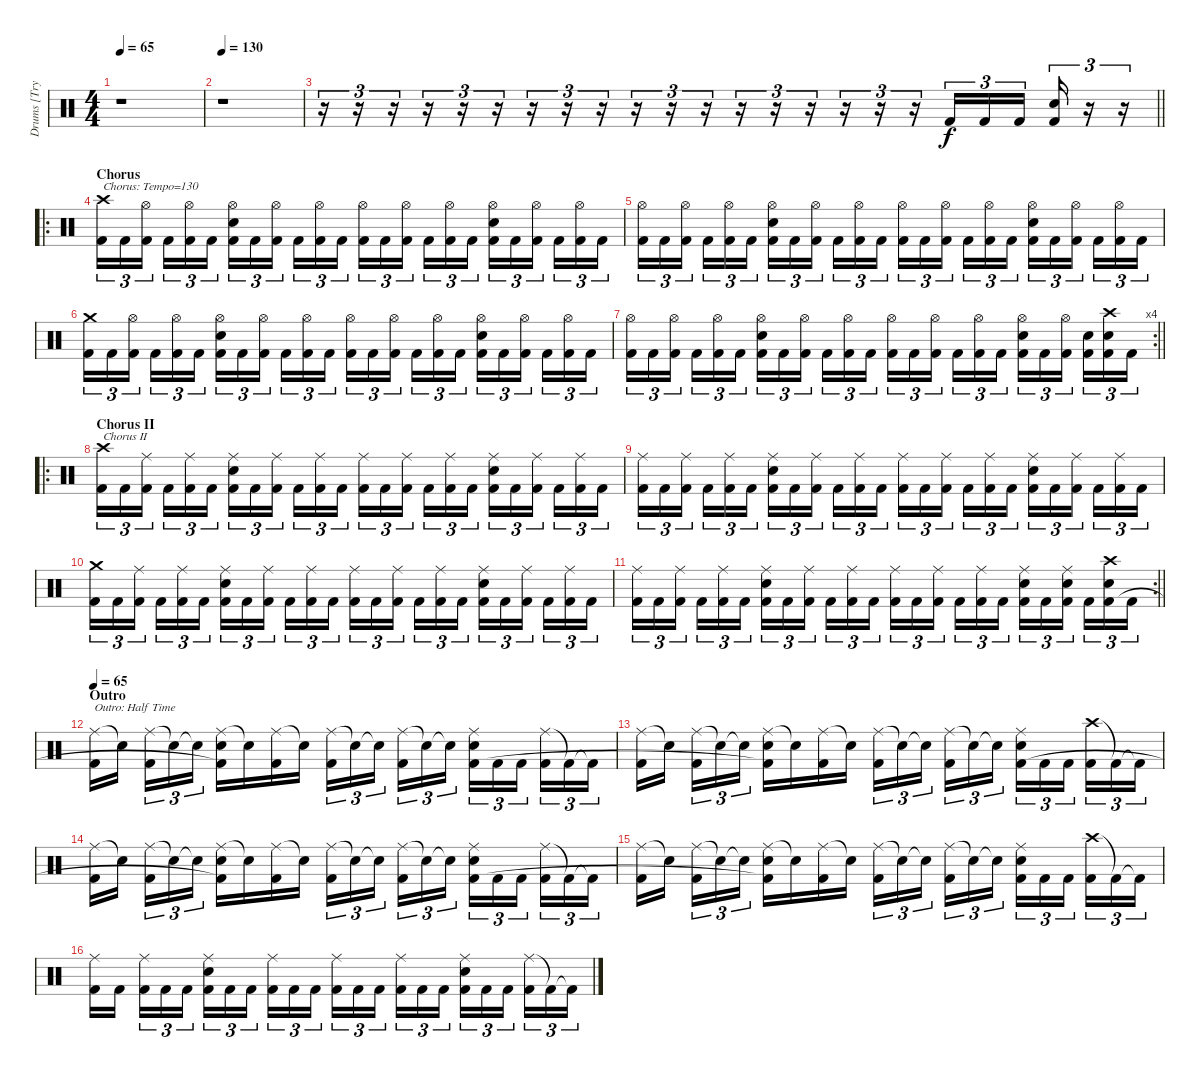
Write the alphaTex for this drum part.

\track ("Drums [Trym]" "Drums [Try") {instrument percussion}
\staff {score}
\articulation defaults
\ts (4 4)
\tempo 65
\clef neutral
\ks c
r.1{dy f} |
\tempo 130
r.1 |
\barLineRight lightlight
r.16{tu (3 2)} r.16{tu (3 2)} r.16{tu (3 2)} r.16{tu (3 2)} r.16{tu (3 2)} r.16{tu (3 2)} r.16{tu (3 2)} r.16{tu (3 2)} r.16{tu (3 2)} r.16{tu (3 2)} r.16{tu (3 2)} r.16{tu (3 2)} r.16{tu (3 2)} r.16{tu (3 2)} r.16{tu (3 2)} r.16{tu (3 2)} r.16{tu (3 2)} r.16{tu (3 2)} "Kick (hit) 2".16{tu (3 2)} "Kick (hit) 2".16{tu (3 2)} "Kick (hit) 2".16{tu (3 2) beam splitsecondary} ("Electric Snare (hit)" "Kick (hit) 2").16{tu (3 2)} r.16{tu (3 2)} r.16{tu (3 2)} |
\ro
\section ("" "Chorus")
("Crash high (hit)" "Kick (hit) 2").16{tu (3 2) txt "Chorus: Tempo=130"} "Kick (hit) 2".16{tu (3 2)} ("Hi-Hat (open)" "Kick (hit) 2").16{tu (3 2) beam splitsecondary} "Kick (hit) 2".16{tu (3 2)} ("Hi-Hat (open)" "Kick (hit) 2").16{tu (3 2)} "Kick (hit) 2".16{tu (3 2)} ("Hi-Hat (open)" "Electric Snare (hit)" "Kick (hit) 2").16{tu (3 2)} "Kick (hit) 2".16{tu (3 2)} ("Hi-Hat (open)" "Kick (hit) 2").16{tu (3 2) beam splitsecondary} "Kick (hit) 2".16{tu (3 2)} ("Hi-Hat (open)" "Kick (hit) 2").16{tu (3 2)} "Kick (hit) 2".16{tu (3 2)} ("Hi-Hat (open)" "Kick (hit) 2").16{tu (3 2)} "Kick (hit) 2".16{tu (3 2)} ("Hi-Hat (open)" "Kick (hit) 2").16{tu (3 2) beam splitsecondary} "Kick (hit) 2".16{tu (3 2)} ("Hi-Hat (open)" "Kick (hit) 2").16{tu (3 2)} "Kick (hit) 2".16{tu (3 2)} ("Hi-Hat (open)" "Electric Snare (hit)" "Kick (hit) 2").16{tu (3 2)} "Kick (hit) 2".16{tu (3 2)} ("Hi-Hat (open)" "Kick (hit) 2").16{tu (3 2) beam splitsecondary} "Kick (hit) 2".16{tu (3 2)} ("Hi-Hat (open)" "Kick (hit) 2").16{tu (3 2)} "Kick (hit) 2".16{tu (3 2)} |
("Hi-Hat (open)" "Kick (hit) 2").16{tu (3 2)} "Kick (hit) 2".16{tu (3 2)} ("Hi-Hat (open)" "Kick (hit) 2").16{tu (3 2) beam splitsecondary} "Kick (hit) 2".16{tu (3 2)} ("Hi-Hat (open)" "Kick (hit) 2").16{tu (3 2)} "Kick (hit) 2".16{tu (3 2)} ("Hi-Hat (open)" "Electric Snare (hit)" "Kick (hit) 2").16{tu (3 2)} "Kick (hit) 2".16{tu (3 2)} ("Hi-Hat (open)" "Kick (hit) 2").16{tu (3 2) beam splitsecondary} "Kick (hit) 2".16{tu (3 2)} ("Hi-Hat (open)" "Kick (hit) 2").16{tu (3 2)} "Kick (hit) 2".16{tu (3 2)} ("Hi-Hat (open)" "Kick (hit) 2").16{tu (3 2)} "Kick (hit) 2".16{tu (3 2)} ("Hi-Hat (open)" "Kick (hit) 2").16{tu (3 2) beam splitsecondary} "Kick (hit) 2".16{tu (3 2)} ("Hi-Hat (open)" "Kick (hit) 2").16{tu (3 2)} "Kick (hit) 2".16{tu (3 2)} ("Hi-Hat (open)" "Electric Snare (hit)" "Kick (hit) 2").16{tu (3 2)} "Kick (hit) 2".16{tu (3 2)} ("Hi-Hat (open)" "Kick (hit) 2").16{tu (3 2) beam splitsecondary} "Kick (hit) 2".16{tu (3 2)} ("Hi-Hat (open)" "Kick (hit) 2").16{tu (3 2)} "Kick (hit) 2".16{tu (3 2)} |
("Crash medium (hit)" "Kick (hit) 2").16{tu (3 2)} "Kick (hit) 2".16{tu (3 2)} ("Hi-Hat (open)" "Kick (hit) 2").16{tu (3 2) beam splitsecondary} "Kick (hit) 2".16{tu (3 2)} ("Hi-Hat (open)" "Kick (hit) 2").16{tu (3 2)} "Kick (hit) 2".16{tu (3 2)} ("Hi-Hat (open)" "Electric Snare (hit)" "Kick (hit) 2").16{tu (3 2)} "Kick (hit) 2".16{tu (3 2)} ("Hi-Hat (open)" "Kick (hit) 2").16{tu (3 2) beam splitsecondary} "Kick (hit) 2".16{tu (3 2)} ("Hi-Hat (open)" "Kick (hit) 2").16{tu (3 2)} "Kick (hit) 2".16{tu (3 2)} ("Hi-Hat (open)" "Kick (hit) 2").16{tu (3 2)} "Kick (hit) 2".16{tu (3 2)} ("Hi-Hat (open)" "Kick (hit) 2").16{tu (3 2) beam splitsecondary} "Kick (hit) 2".16{tu (3 2)} ("Hi-Hat (open)" "Kick (hit) 2").16{tu (3 2)} "Kick (hit) 2".16{tu (3 2)} ("Hi-Hat (open)" "Electric Snare (hit)" "Kick (hit) 2").16{tu (3 2)} "Kick (hit) 2".16{tu (3 2)} ("Hi-Hat (open)" "Kick (hit) 2").16{tu (3 2) beam splitsecondary} "Kick (hit) 2".16{tu (3 2)} ("Hi-Hat (open)" "Kick (hit) 2").16{tu (3 2)} "Kick (hit) 2".16{tu (3 2)} |
\rc 4
\barLineRight lightlight
("Hi-Hat (open)" "Kick (hit) 2").16{tu (3 2)} "Kick (hit) 2".16{tu (3 2)} ("Hi-Hat (open)" "Kick (hit) 2").16{tu (3 2) beam splitsecondary} "Kick (hit) 2".16{tu (3 2)} ("Hi-Hat (open)" "Kick (hit) 2").16{tu (3 2)} "Kick (hit) 2".16{tu (3 2)} ("Hi-Hat (open)" "Electric Snare (hit)" "Kick (hit) 2").16{tu (3 2)} "Kick (hit) 2".16{tu (3 2)} ("Hi-Hat (open)" "Kick (hit) 2").16{tu (3 2) beam splitsecondary} "Kick (hit) 2".16{tu (3 2)} ("Hi-Hat (open)" "Kick (hit) 2").16{tu (3 2)} "Kick (hit) 2".16{tu (3 2)} ("Hi-Hat (open)" "Kick (hit) 2").16{tu (3 2)} "Kick (hit) 2".16{tu (3 2)} ("Hi-Hat (open)" "Kick (hit) 2").16{tu (3 2) beam splitsecondary} "Kick (hit) 2".16{tu (3 2)} ("Hi-Hat (open)" "Kick (hit) 2").16{tu (3 2)} "Kick (hit) 2".16{tu (3 2)} ("Hi-Hat (open)" "Electric Snare (hit)" "Kick (hit) 2").16{tu (3 2)} "Kick (hit) 2".16{tu (3 2)} ("Hi-Hat (open)" "Kick (hit) 2").16{tu (3 2) beam splitsecondary} ("Electric Snare (hit)" "Kick (hit) 2").16{tu (3 2)} ("Crash high (hit)" "Electric Snare (hit)" "Kick (hit) 2").16{tu (3 2)} "Kick (hit) 2".16{tu (3 2)} |
\ro
\section ("" "Chorus II")
("Crash high (hit)" "Kick (hit) 2").16{tu (3 2) txt "Chorus II"} "Kick (hit) 2".16{tu (3 2)} ("Ride (middle)" "Kick (hit) 2").16{tu (3 2) beam splitsecondary} "Kick (hit) 2".16{tu (3 2)} ("Ride (middle)" "Kick (hit) 2").16{tu (3 2)} "Kick (hit) 2".16{tu (3 2)} ("Ride (middle)" "Electric Snare (hit)" "Kick (hit) 2").16{tu (3 2)} "Kick (hit) 2".16{tu (3 2)} ("Ride (middle)" "Kick (hit) 2").16{tu (3 2) beam splitsecondary} "Kick (hit) 2".16{tu (3 2)} ("Ride (middle)" "Kick (hit) 2").16{tu (3 2)} "Kick (hit) 2".16{tu (3 2)} ("Ride (middle)" "Kick (hit) 2").16{tu (3 2)} "Kick (hit) 2".16{tu (3 2)} ("Ride (middle)" "Kick (hit) 2").16{tu (3 2) beam splitsecondary} "Kick (hit) 2".16{tu (3 2)} ("Ride (middle)" "Kick (hit) 2").16{tu (3 2)} "Kick (hit) 2".16{tu (3 2)} ("Ride (middle)" "Electric Snare (hit)" "Kick (hit) 2").16{tu (3 2)} "Kick (hit) 2".16{tu (3 2)} ("Ride (middle)" "Kick (hit) 2").16{tu (3 2) beam splitsecondary} "Kick (hit) 2".16{tu (3 2)} ("Ride (middle)" "Kick (hit) 2").16{tu (3 2)} "Kick (hit) 2".16{tu (3 2)} |
("Ride (middle)" "Kick (hit) 2").16{tu (3 2)} "Kick (hit) 2".16{tu (3 2)} ("Ride (middle)" "Kick (hit) 2").16{tu (3 2) beam splitsecondary} "Kick (hit) 2".16{tu (3 2)} ("Ride (middle)" "Kick (hit) 2").16{tu (3 2)} "Kick (hit) 2".16{tu (3 2)} ("Ride (middle)" "Electric Snare (hit)" "Kick (hit) 2").16{tu (3 2)} "Kick (hit) 2".16{tu (3 2)} ("Ride (middle)" "Kick (hit) 2").16{tu (3 2) beam splitsecondary} "Kick (hit) 2".16{tu (3 2)} ("Ride (middle)" "Kick (hit) 2").16{tu (3 2)} "Kick (hit) 2".16{tu (3 2)} ("Ride (middle)" "Kick (hit) 2").16{tu (3 2)} "Kick (hit) 2".16{tu (3 2)} ("Ride (middle)" "Kick (hit) 2").16{tu (3 2) beam splitsecondary} "Kick (hit) 2".16{tu (3 2)} ("Ride (middle)" "Kick (hit) 2").16{tu (3 2)} "Kick (hit) 2".16{tu (3 2)} ("Ride (middle)" "Electric Snare (hit)" "Kick (hit) 2").16{tu (3 2)} "Kick (hit) 2".16{tu (3 2)} ("Ride (middle)" "Kick (hit) 2").16{tu (3 2) beam splitsecondary} "Kick (hit) 2".16{tu (3 2)} ("Ride (middle)" "Kick (hit) 2").16{tu (3 2)} "Kick (hit) 2".16{tu (3 2)} |
("Crash medium (hit)" "Kick (hit) 2").16{tu (3 2)} "Kick (hit) 2".16{tu (3 2)} ("Ride (middle)" "Kick (hit) 2").16{tu (3 2) beam splitsecondary} "Kick (hit) 2".16{tu (3 2)} ("Ride (middle)" "Kick (hit) 2").16{tu (3 2)} "Kick (hit) 2".16{tu (3 2)} ("Ride (middle)" "Electric Snare (hit)" "Kick (hit) 2").16{tu (3 2)} "Kick (hit) 2".16{tu (3 2)} ("Ride (middle)" "Kick (hit) 2").16{tu (3 2) beam splitsecondary} "Kick (hit) 2".16{tu (3 2)} ("Ride (middle)" "Kick (hit) 2").16{tu (3 2)} "Kick (hit) 2".16{tu (3 2)} ("Ride (middle)" "Kick (hit) 2").16{tu (3 2)} "Kick (hit) 2".16{tu (3 2)} ("Ride (middle)" "Kick (hit) 2").16{tu (3 2) beam splitsecondary} "Kick (hit) 2".16{tu (3 2)} ("Ride (middle)" "Kick (hit) 2").16{tu (3 2)} "Kick (hit) 2".16{tu (3 2)} ("Ride (middle)" "Electric Snare (hit)" "Kick (hit) 2").16{tu (3 2)} "Kick (hit) 2".16{tu (3 2)} ("Ride (middle)" "Kick (hit) 2").16{tu (3 2) beam splitsecondary} "Kick (hit) 2".16{tu (3 2)} ("Ride (middle)" "Kick (hit) 2").16{tu (3 2)} "Kick (hit) 2".16{tu (3 2)} |
\rc 2
\barLineRight lightlight
("Ride (middle)" "Kick (hit) 2").16{tu (3 2)} "Kick (hit) 2".16{tu (3 2)} ("Ride (middle)" "Kick (hit) 2").16{tu (3 2) beam splitsecondary} "Kick (hit) 2".16{tu (3 2)} ("Ride (middle)" "Kick (hit) 2").16{tu (3 2)} "Kick (hit) 2".16{tu (3 2)} ("Ride (middle)" "Electric Snare (hit)" "Kick (hit) 2").16{tu (3 2)} "Kick (hit) 2".16{tu (3 2)} ("Ride (middle)" "Kick (hit) 2").16{tu (3 2) beam splitsecondary} "Kick (hit) 2".16{tu (3 2)} ("Ride (middle)" "Kick (hit) 2").16{tu (3 2)} "Kick (hit) 2".16{tu (3 2)} ("Ride (middle)" "Kick (hit) 2").16{tu (3 2)} "Kick (hit) 2".16{tu (3 2)} ("Ride (middle)" "Kick (hit) 2").16{tu (3 2) beam splitsecondary} "Kick (hit) 2".16{tu (3 2)} ("Ride (middle)" "Kick (hit) 2").16{tu (3 2)} "Kick (hit) 2".16{tu (3 2)} ("Ride (middle)" "Electric Snare (hit)" "Kick (hit) 2").16{tu (3 2)} "Kick (hit) 2".16{tu (3 2)} ("Ride (middle)" "Electric Snare (hit)" "Kick (hit) 2").16{tu (3 2) beam splitsecondary} "Kick (hit) 2".16{tu (3 2)} ("Crash high (hit)" "Electric Snare (hit)" "Kick (hit) 2").16{tu (3 2)} "Kick (hit) 2".16{tu (3 2)} |
\section ("" "Outro")
\tempo 65
("Ride (middle)" "Kick (hit) 2").16{txt "Outro: Half Time"} "Snare (hit)"{t}.16{beam splitsecondary} ("Ride (middle)" "Kick (hit) 2").16{tu (3 2)} "Snare (hit)"{t}.16{tu (3 2)} "Snare (hit)"{t}.16{tu (3 2)} ("Ride (middle)" "Electric Snare (hit)" "Kick (hit) 2"{t}).16 "Snare (hit)"{t}.16 ("Ride (middle)" "Kick (hit) 2").16 "Snare (hit)"{t}.16 ("Ride (middle)" "Kick (hit) 2").16{tu (3 2)} "Snare (hit)"{t}.16{tu (3 2)} "Snare (hit)"{t}.16{tu (3 2) beam splitsecondary} ("Ride (middle)" "Kick (hit) 2").16{tu (3 2)} "Snare (hit)"{t}.16{tu (3 2)} "Snare (hit)"{t}.16{tu (3 2)} ("Ride (middle)" "Electric Snare (hit)" "Kick (hit) 2").16{tu (3 2)} "Kick (hit) 2".16{tu (3 2)} "Kick (hit) 2".16{tu (3 2) beam splitsecondary} ("Ride (middle)" "Kick (hit) 2").16{tu (3 2)} "Kick (hit) 2"{t}.16{tu (3 2)} "Kick (hit) 2"{t}.16{tu (3 2)} |
("Ride (middle)" "Kick (hit) 2").16 "Snare (hit)"{t}.16{beam splitsecondary} ("Ride (middle)" "Kick (hit) 2").16{tu (3 2)} "Snare (hit)"{t}.16{tu (3 2)} "Snare (hit)"{t}.16{tu (3 2)} ("Ride (middle)" "Electric Snare (hit)" "Kick (hit) 2"{t}).16 "Snare (hit)"{t}.16 ("Ride (middle)" "Kick (hit) 2").16 "Snare (hit)"{t}.16 ("Ride (middle)" "Kick (hit) 2").16{tu (3 2)} "Snare (hit)"{t}.16{tu (3 2)} "Snare (hit)"{t}.16{tu (3 2) beam splitsecondary} ("Ride (middle)" "Kick (hit) 2").16{tu (3 2)} "Snare (hit)"{t}.16{tu (3 2)} "Snare (hit)"{t}.16{tu (3 2)} ("Ride (middle)" "Electric Snare (hit)" "Kick (hit) 2").16{tu (3 2)} "Kick (hit) 2".16{tu (3 2)} "Kick (hit) 2".16{tu (3 2) beam splitsecondary} ("Crash high (hit)" "Kick (hit) 2").16{tu (3 2)} "Kick (hit) 2"{t}.16{tu (3 2)} "Kick (hit) 2"{t}.16{tu (3 2)} |
("Ride (middle)" "Kick (hit) 2").16 "Snare (hit)"{t}.16{beam splitsecondary} ("Ride (middle)" "Kick (hit) 2").16{tu (3 2)} "Snare (hit)"{t}.16{tu (3 2)} "Snare (hit)"{t}.16{tu (3 2)} ("Ride (middle)" "Electric Snare (hit)" "Kick (hit) 2"{t}).16 "Snare (hit)"{t}.16 ("Ride (middle)" "Kick (hit) 2").16 "Snare (hit)"{t}.16 ("Ride (middle)" "Kick (hit) 2").16{tu (3 2)} "Snare (hit)"{t}.16{tu (3 2)} "Snare (hit)"{t}.16{tu (3 2) beam splitsecondary} ("Ride (middle)" "Kick (hit) 2").16{tu (3 2)} "Snare (hit)"{t}.16{tu (3 2)} "Snare (hit)"{t}.16{tu (3 2)} ("Ride (middle)" "Electric Snare (hit)" "Kick (hit) 2").16{tu (3 2)} "Kick (hit) 2".16{tu (3 2)} "Kick (hit) 2".16{tu (3 2) beam splitsecondary} ("Ride (middle)" "Kick (hit) 2").16{tu (3 2)} "Kick (hit) 2"{t}.16{tu (3 2)} "Kick (hit) 2"{t}.16{tu (3 2)} |
("Ride (middle)" "Kick (hit) 2").16 "Snare (hit)"{t}.16{beam splitsecondary} ("Ride (middle)" "Kick (hit) 2").16{tu (3 2)} "Snare (hit)"{t}.16{tu (3 2)} "Snare (hit)"{t}.16{tu (3 2)} ("Ride (middle)" "Electric Snare (hit)" "Kick (hit) 2"{t}).16 "Snare (hit)"{t}.16 ("Ride (middle)" "Kick (hit) 2").16 "Snare (hit)"{t}.16 ("Ride (middle)" "Kick (hit) 2").16{tu (3 2)} "Snare (hit)"{t}.16{tu (3 2)} "Snare (hit)"{t}.16{tu (3 2) beam splitsecondary} ("Ride (middle)" "Kick (hit) 2").16{tu (3 2)} "Snare (hit)"{t}.16{tu (3 2)} "Snare (hit)"{t}.16{tu (3 2)} ("Ride (middle)" "Electric Snare (hit)" "Kick (hit) 2").16{tu (3 2)} "Kick (hit) 2".16{tu (3 2)} "Kick (hit) 2".16{tu (3 2) beam splitsecondary} ("Crash high (hit)" "Kick (hit) 2").16{tu (3 2)} "Kick (hit) 2"{t}.16{tu (3 2)} "Kick (hit) 2"{t}.16{tu (3 2)} |
("Ride (middle)" "Kick (hit) 2").16 "Kick (hit) 2".16{beam splitsecondary} ("Ride (middle)" "Kick (hit) 2").16{tu (3 2)} "Kick (hit) 2".16{tu (3 2)} "Kick (hit) 2".16{tu (3 2)} ("Ride (middle)" "Electric Snare (hit)" "Kick (hit) 2").16{tu (3 2)} "Kick (hit) 2".16{tu (3 2)} "Kick (hit) 2".16{tu (3 2) beam splitsecondary} ("Ride (middle)" "Kick (hit) 2").16{tu (3 2)} "Kick (hit) 2".16{tu (3 2)} "Kick (hit) 2".16{tu (3 2)} ("Ride (middle)" "Kick (hit) 2").16{tu (3 2)} "Kick (hit) 2".16{tu (3 2)} "Kick (hit) 2".16{tu (3 2) beam splitsecondary} ("Ride (middle)" "Kick (hit) 2").16{tu (3 2)} "Kick (hit) 2".16{tu (3 2)} "Kick (hit) 2".16{tu (3 2)} ("Ride (middle)" "Electric Snare (hit)" "Kick (hit) 2").16{tu (3 2)} "Kick (hit) 2".16{tu (3 2)} "Kick (hit) 2".16{tu (3 2) beam splitsecondary} ("Ride (middle)" "Kick (hit) 2").16{tu (3 2)} "Kick (hit) 2"{t}.16{tu (3 2)} "Kick (hit) 2"{t}.16{tu (3 2)}
